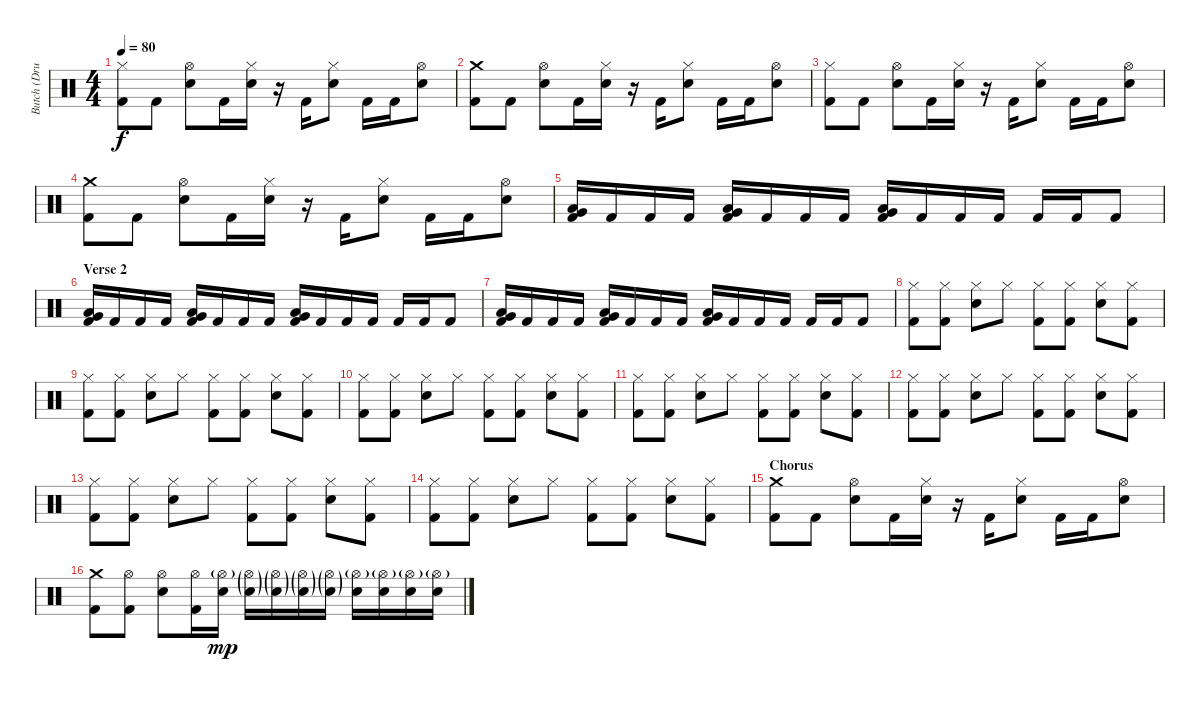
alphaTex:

\track ("Butch (Drums)" "Butch (Dru") {instrument percussion}
\staff {score}
\articulation defaults
\ts (4 4)
\tempo 80
\clef neutral
\ks c
("Hi-Hat (closed)" "Kick (hit) 2").8{dy f} "Kick (hit) 2".8 ("Hi-Hat (open)" "Electric Snare (hit)").8 "Kick (hit) 2".16 ("Hi-Hat (closed)" "Electric Snare (hit)").16 r.16 "Kick (hit) 2".16 ("Hi-Hat (closed)" "Electric Snare (hit)").8 "Kick (hit) 2".16 "Kick (hit) 2".16 ("Hi-Hat (open)" "Electric Snare (hit)").8 |
("Crash medium (hit)" "Kick (hit) 2").8 "Kick (hit) 2".8 ("Hi-Hat (open)" "Electric Snare (hit)").8 "Kick (hit) 2".16 ("Hi-Hat (closed)" "Electric Snare (hit)").16 r.16 "Kick (hit) 2".16 ("Hi-Hat (closed)" "Electric Snare (hit)").8 "Kick (hit) 2".16 "Kick (hit) 2".16 ("Hi-Hat (open)" "Electric Snare (hit)").8 |
("Hi-Hat (closed)" "Kick (hit) 2").8 "Kick (hit) 2".8 ("Hi-Hat (open)" "Electric Snare (hit)").8 "Kick (hit) 2".16 ("Hi-Hat (closed)" "Electric Snare (hit)").16 r.16 "Kick (hit) 2".16 ("Hi-Hat (closed)" "Electric Snare (hit)").8 "Kick (hit) 2".16 "Kick (hit) 2".16 ("Hi-Hat (open)" "Electric Snare (hit)").8 |
("Crash medium (hit)" "Kick (hit) 2").8 "Kick (hit) 2".8 ("Hi-Hat (open)" "Electric Snare (hit)").8 "Kick (hit) 2".16 ("Hi-Hat (closed)" "Electric Snare (hit)").16 r.16 "Kick (hit) 2".16 ("Hi-Hat (closed)" "Electric Snare (hit)").8 "Kick (hit) 2".16 "Kick (hit) 2".16 ("Hi-Hat (open)" "Electric Snare (hit)").8 |
("Low Floor Tom (hit)" "Very Low Tom (hit)" "Kick (hit) 2").16 "Kick (hit) 2".16 "Kick (hit) 2".16 "Kick (hit) 2".16 ("Low Floor Tom (hit)" "Very Low Tom (hit)" "Kick (hit) 2").16 "Kick (hit) 2".16 "Kick (hit) 2".16 "Kick (hit) 2".16 ("Low Floor Tom (hit)" "Very Low Tom (hit)" "Kick (hit) 2").16 "Kick (hit) 2".16 "Kick (hit) 2".16 "Kick (hit) 2".16 "Kick (hit) 2".16 "Kick (hit) 2".16 "Kick (hit) 2".8 |
\section ("" "Verse 2")
("Low Floor Tom (hit)" "Very Low Tom (hit)" "Kick (hit) 2").16 "Kick (hit) 2".16 "Kick (hit) 2".16 "Kick (hit) 2".16 ("Low Floor Tom (hit)" "Very Low Tom (hit)" "Kick (hit) 2").16 "Kick (hit) 2".16 "Kick (hit) 2".16 "Kick (hit) 2".16 ("Low Floor Tom (hit)" "Very Low Tom (hit)" "Kick (hit) 2").16 "Kick (hit) 2".16 "Kick (hit) 2".16 "Kick (hit) 2".16 "Kick (hit) 2".16 "Kick (hit) 2".16 "Kick (hit) 2".8 |
("Low Floor Tom (hit)" "Very Low Tom (hit)" "Kick (hit) 2").16 "Kick (hit) 2".16 "Kick (hit) 2".16 "Kick (hit) 2".16 ("Low Floor Tom (hit)" "Very Low Tom (hit)" "Kick (hit) 2").16 "Kick (hit) 2".16 "Kick (hit) 2".16 "Kick (hit) 2".16 ("Low Floor Tom (hit)" "Very Low Tom (hit)" "Kick (hit) 2").16 "Kick (hit) 2".16 "Kick (hit) 2".16 "Kick (hit) 2".16 "Kick (hit) 2".16 "Kick (hit) 2".16 "Kick (hit) 2".8 |
("Hi-Hat (closed)" "Kick (hit) 2").8 ("Hi-Hat (closed)" "Kick (hit) 2").8 ("Hi-Hat (closed)" "Snare (hit) 2").8 "Hi-Hat (closed)".8 ("Hi-Hat (closed)" "Kick (hit) 2").8 ("Hi-Hat (closed)" "Kick (hit) 2").8 ("Hi-Hat (closed)" "Snare (hit) 2").8 ("Hi-Hat (closed)" "Kick (hit) 2").8 |
("Hi-Hat (closed)" "Kick (hit) 2").8 ("Hi-Hat (closed)" "Kick (hit) 2").8 ("Hi-Hat (closed)" "Snare (hit) 2").8 "Hi-Hat (closed)".8 ("Hi-Hat (closed)" "Kick (hit) 2").8 ("Hi-Hat (closed)" "Kick (hit) 2").8 ("Hi-Hat (closed)" "Snare (hit) 2").8 ("Hi-Hat (closed)" "Kick (hit) 2").8 |
("Hi-Hat (closed)" "Kick (hit) 2").8 ("Hi-Hat (closed)" "Kick (hit) 2").8 ("Hi-Hat (closed)" "Snare (hit) 2").8 "Hi-Hat (closed)".8 ("Hi-Hat (closed)" "Kick (hit) 2").8 ("Hi-Hat (closed)" "Kick (hit) 2").8 ("Hi-Hat (closed)" "Snare (hit) 2").8 ("Hi-Hat (closed)" "Kick (hit) 2").8 |
("Hi-Hat (closed)" "Kick (hit) 2").8 ("Hi-Hat (closed)" "Kick (hit) 2").8 ("Hi-Hat (closed)" "Snare (hit) 2").8 "Hi-Hat (closed)".8 ("Hi-Hat (closed)" "Kick (hit) 2").8 ("Hi-Hat (closed)" "Kick (hit) 2").8 ("Hi-Hat (closed)" "Snare (hit) 2").8 ("Hi-Hat (closed)" "Kick (hit) 2").8 |
("Hi-Hat (closed)" "Kick (hit) 2").8 ("Hi-Hat (closed)" "Kick (hit) 2").8 ("Hi-Hat (closed)" "Snare (hit) 2").8 "Hi-Hat (closed)".8 ("Hi-Hat (closed)" "Kick (hit) 2").8 ("Hi-Hat (closed)" "Kick (hit) 2").8 ("Hi-Hat (closed)" "Snare (hit) 2").8 ("Hi-Hat (closed)" "Kick (hit) 2").8 |
("Hi-Hat (closed)" "Kick (hit) 2").8 ("Hi-Hat (closed)" "Kick (hit) 2").8 ("Hi-Hat (closed)" "Snare (hit) 2").8 "Hi-Hat (closed)".8 ("Hi-Hat (closed)" "Kick (hit) 2").8 ("Hi-Hat (closed)" "Kick (hit) 2").8 ("Hi-Hat (closed)" "Snare (hit) 2").8 ("Hi-Hat (closed)" "Kick (hit) 2").8 |
("Hi-Hat (closed)" "Kick (hit) 2").8 ("Hi-Hat (closed)" "Kick (hit) 2").8 ("Hi-Hat (closed)" "Snare (hit) 2").8 "Hi-Hat (closed)".8 ("Hi-Hat (closed)" "Kick (hit) 2").8 ("Hi-Hat (closed)" "Kick (hit) 2").8 ("Hi-Hat (closed)" "Snare (hit) 2").8 ("Hi-Hat (closed)" "Kick (hit) 2").8 |
\section ("" "Chorus")
("Crash medium (hit)" "Kick (hit) 2").8 "Kick (hit) 2".8 ("Hi-Hat (open)" "Electric Snare (hit)").8 "Kick (hit) 2".16 ("Hi-Hat (closed)" "Electric Snare (hit)").16 r.16 "Kick (hit) 2".16 ("Hi-Hat (closed)" "Electric Snare (hit)").8 "Kick (hit) 2".16 "Kick (hit) 2".16 ("Hi-Hat (open)" "Electric Snare (hit)").8 |
("Crash medium (hit)" "Kick (hit) 2").8 ("Hi-Hat (open)" "Kick (hit) 2").8 ("Hi-Hat (open)" "Electric Snare (hit)").8 ("Hi-Hat (open)" "Kick (hit) 2").16 ("Hi-Hat (open)"{g} "Electric Snare (hit)").16{dy mp} ("Hi-Hat (open)"{g} "Electric Snare (hit)"{g}).16 ("Hi-Hat (open)"{g} "Electric Snare (hit)"{g}).16 ("Hi-Hat (open)"{g} "Electric Snare (hit)"{g}).16 ("Hi-Hat (open)"{g} "Electric Snare (hit)"{g}).16 ("Hi-Hat (open)"{g} "Electric Snare (hit)").16 ("Hi-Hat (open)"{g} "Electric Snare (hit)").16 ("Hi-Hat (open)"{g} "Electric Snare (hit)").16 ("Hi-Hat (open)"{g} "Electric Snare (hit)").16
